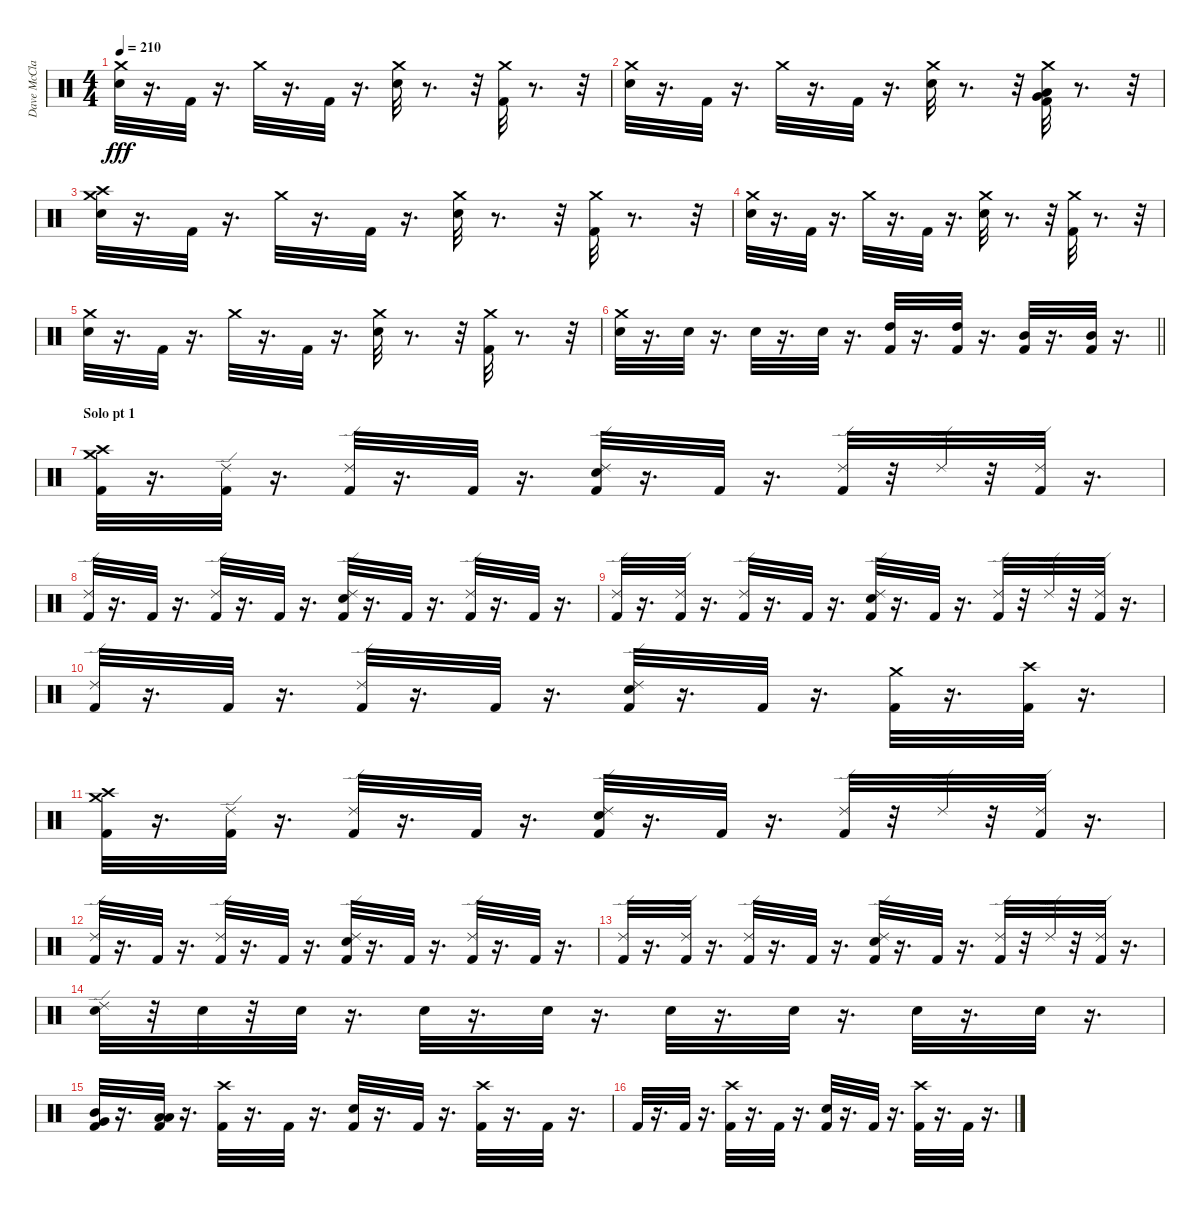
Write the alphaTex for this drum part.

\track ("Dave McClain" "Dave McCla") {instrument percussion}
\staff {score}
\articulation defaults
\ts (4 4)
\tempo 210
\clef neutral
\ks c
("Snare (hit) 2" "Crash medium (hit)").32{dy fff} r.16{d} "Kick (hit) 2".32 r.16{d} "Crash medium (hit)".32 r.16{d} "Kick (hit) 2".32 r.16{d} ("Snare (hit) 2" "Crash medium (hit)").32 r.8{d} r.32 ("Kick (hit) 2" "Crash medium (hit)").32 r.8{d} r.32 |
("Snare (hit) 2" "Crash medium (hit)").32 r.16{d} "Kick (hit) 2".32 r.16{d} "Crash medium (hit)".32 r.16{d} "Kick (hit) 2".32 r.16{d} ("Snare (hit) 2" "Crash medium (hit)").32 r.8{d} r.32 ("Very Low Tom (hit)" "Low Floor Tom (hit)" "Kick (hit) 2" "Crash medium (hit)").32 r.8{d} r.32 |
("Snare (hit) 2" "Crash medium (hit)" "Crash high (hit)").32 r.16{d} "Kick (hit) 2".32 r.16{d} "Crash medium (hit)".32 r.16{d} "Kick (hit) 2".32 r.16{d} ("Crash medium (hit)" "Snare (hit) 2").32 r.8{d} r.32 ("Kick (hit) 2" "Crash medium (hit)").32 r.8{d} r.32 |
("Snare (hit) 2" "Crash medium (hit)").32 r.16{d} "Kick (hit) 2".32 r.16{d} "Crash medium (hit)".32 r.16{d} "Kick (hit) 2".32 r.16{d} ("Snare (hit) 2" "Crash medium (hit)").32 r.8{d} r.32 ("Kick (hit) 2" "Crash medium (hit)").32 r.8{d} r.32 |
("Snare (hit) 2" "Crash medium (hit)").32 r.16{d} "Kick (hit) 2".32 r.16{d} "Crash medium (hit)".32 r.16{d} "Kick (hit) 2".32 r.16{d} ("Snare (hit) 2" "Crash medium (hit)").32 r.8{d} r.32 ("Kick (hit) 2" "Crash medium (hit)").32 r.8{d} r.32 |
\barLineRight lightlight
("Snare (hit) 2" "Crash medium (hit)").32 r.16{d} "Snare (hit) 2".32 r.16{d} "Snare (hit) 2".32 r.16{d} "Snare (hit) 2".32 r.16{d} ("Kick (hit) 2" "High Tom (hit)").32 r.16{d} ("Kick (hit) 2" "High Tom (hit)").32 r.16{d} ("Kick (hit) 2" "Mid Tom (hit)").32 r.16{d} ("Kick (hit) 2" "Mid Tom (hit)").32 r.16{d} |
\section ("" "Solo pt 1")
("Crash medium (hit)" "Crash high (hit)" "Kick (hit) 2").32 r.16{d} ("Ride (edge) 2" "Kick (hit) 2").32 r.16{d} ("Ride (edge) 2" "Kick (hit) 2").32 r.16{d} "Kick (hit) 2".32 r.16{d} ("Ride (edge) 2" "Snare (hit) 2" "Kick (hit) 2").32 r.16{d} "Kick (hit) 2".32 r.16{d} ("Ride (edge) 2" "Kick (hit) 2").32 r.32 "Ride (edge) 2".32 r.32 ("Ride (edge) 2" "Kick (hit) 2").32 r.16{d} |
("Ride (edge) 2" "Kick (hit) 2").32 r.16{d} "Kick (hit) 2".32 r.16{d} ("Ride (edge) 2" "Kick (hit) 2").32 r.16{d} "Kick (hit) 2".32 r.16{d} ("Ride (edge) 2" "Snare (hit) 2" "Kick (hit) 2").32 r.16{d} "Kick (hit) 2".32 r.16{d} ("Ride (edge) 2" "Kick (hit) 2").32 r.16{d} "Kick (hit) 2".32 r.16{d} |
("Ride (edge) 2" "Kick (hit) 2").32 r.16{d} ("Ride (edge) 2" "Kick (hit) 2").32 r.16{d} ("Ride (edge) 2" "Kick (hit) 2").32 r.16{d} "Kick (hit) 2".32 r.16{d} ("Ride (edge) 2" "Snare (hit) 2" "Kick (hit) 2").32 r.16{d} "Kick (hit) 2".32 r.16{d} ("Ride (edge) 2" "Kick (hit) 2").32 r.32 "Ride (edge) 2".32 r.32 ("Ride (edge) 2" "Kick (hit) 2").32 r.16{d} |
("Ride (edge) 2" "Kick (hit) 2").32 r.16{d} "Kick (hit) 2".32 r.16{d} ("Ride (edge) 2" "Kick (hit) 2").32 r.16{d} "Kick (hit) 2".32 r.16{d} ("Ride (edge) 2" "Snare (hit) 2" "Kick (hit) 2").32 r.16{d} "Kick (hit) 2".32 r.16{d} ("Crash medium (hit)" "Kick (hit) 2").32 r.16{d} ("Crash high (hit)" "Kick (hit) 2").32 r.16{d} |
("Crash medium (hit)" "Crash high (hit)" "Kick (hit) 2").32 r.16{d} ("Ride (edge) 2" "Kick (hit) 2").32 r.16{d} ("Ride (edge) 2" "Kick (hit) 2").32 r.16{d} "Kick (hit) 2".32 r.16{d} ("Ride (edge) 2" "Snare (hit) 2" "Kick (hit) 2").32 r.16{d} "Kick (hit) 2".32 r.16{d} ("Ride (edge) 2" "Kick (hit) 2").32 r.32 "Ride (edge) 2".32 r.32 ("Ride (edge) 2" "Kick (hit) 2").32 r.16{d} |
("Ride (edge) 2" "Kick (hit) 2").32 r.16{d} "Kick (hit) 2".32 r.16{d} ("Ride (edge) 2" "Kick (hit) 2").32 r.16{d} "Kick (hit) 2".32 r.16{d} ("Ride (edge) 2" "Snare (hit) 2" "Kick (hit) 2").32 r.16{d} "Kick (hit) 2".32 r.16{d} ("Ride (edge) 2" "Kick (hit) 2").32 r.16{d} "Kick (hit) 2".32 r.16{d} |
("Ride (edge) 2" "Kick (hit) 2").32 r.16{d} ("Ride (edge) 2" "Kick (hit) 2").32 r.16{d} ("Ride (edge) 2" "Kick (hit) 2").32 r.16{d} "Kick (hit) 2".32 r.16{d} ("Ride (edge) 2" "Snare (hit) 2" "Kick (hit) 2").32 r.16{d} "Kick (hit) 2".32 r.16{d} ("Ride (edge) 2" "Kick (hit) 2").32 r.32 "Ride (edge) 2".32 r.32 ("Ride (edge) 2" "Kick (hit) 2").32 r.16{d} |
("Snare (hit) 2" "Ride (edge) 2").32 r.32 "Snare (hit) 2".32 r.32 "Snare (hit) 2".32 r.16{d} "Snare (hit) 2".32 r.16{d} "Snare (hit) 2".32 r.16{d} "Snare (hit) 2".32 r.16{d} "Snare (hit) 2".32 r.16{d} "Snare (hit) 2".32 r.16{d} "Snare (hit) 2".32 r.16{d} |
("Very Low Tom (hit)" "Mid Tom (hit)" "Kick (hit) 2").32 r.16{d} ("Kick (hit) 2" "Low Tom (hit)" "Low Floor Tom (hit)").32 r.16{d} ("Kick (hit) 2" "Crash high (hit)").32 r.16{d} "Kick (hit) 2".32 r.16{d} ("Kick (hit) 2" "Snare (hit) 2").32 r.16{d} "Kick (hit) 2".32 r.16{d} ("Kick (hit) 2" "Crash high (hit)").32 r.16{d} "Kick (hit) 2".32 r.16{d} |
"Kick (hit) 2".32 r.16{d} "Kick (hit) 2".32 r.16{d} ("Kick (hit) 2" "Crash high (hit)").32 r.16{d} "Kick (hit) 2".32 r.16{d} ("Kick (hit) 2" "Snare (hit) 2").32 r.16{d} "Kick (hit) 2".32 r.16{d} ("Kick (hit) 2" "Crash high (hit)").32 r.16{d} "Kick (hit) 2".32 r.16{d}
